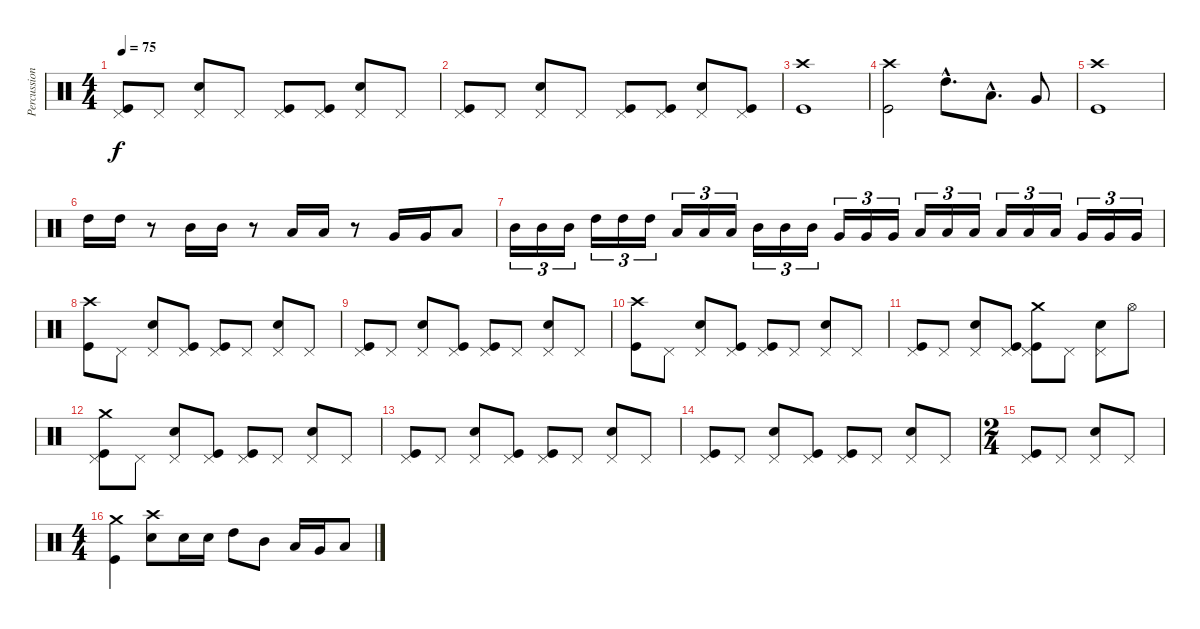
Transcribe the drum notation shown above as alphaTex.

\track ("Percussion" "Percussion") {instrument percussion}
\staff {score}
\articulation defaults
\ts (4 4)
\tempo 75
\clef neutral
\ks c
("Kick (hit)" "Pedal Hi-Hat (hit)").8{dy f} "Pedal Hi-Hat (hit)".8 ("Snare (hit) 2" "Pedal Hi-Hat (hit)").8 "Pedal Hi-Hat (hit)".8 ("Kick (hit)" "Pedal Hi-Hat (hit)").8 ("Kick (hit)" "Pedal Hi-Hat (hit)").8 ("Snare (hit) 2" "Pedal Hi-Hat (hit)").8 "Pedal Hi-Hat (hit)".8 |
("Kick (hit)" "Pedal Hi-Hat (hit)").8 "Pedal Hi-Hat (hit)".8 ("Snare (hit) 2" "Pedal Hi-Hat (hit)").8 "Pedal Hi-Hat (hit)".8 ("Kick (hit)" "Pedal Hi-Hat (hit)").8 ("Kick (hit)" "Pedal Hi-Hat (hit)").8 ("Snare (hit) 2" "Pedal Hi-Hat (hit)").8 ("Kick (hit)" "Pedal Hi-Hat (hit)").8 |
("Kick (hit)" "Crash high (hit)").1 |
("Kick (hit)" "Crash high (hit)").2 "High Tom (hit)"{hac}.8{d} "Low Tom (hit)"{hac}.8{d} "Very Low Tom (hit)".8 |
("Kick (hit)" "Crash high (hit)").1 |
"High Tom (hit)".16 "High Tom (hit)".16 r.8 "Mid Tom (hit)".16 "Mid Tom (hit)".16 r.8 "Low Tom (hit)".16 "Low Tom (hit)".16 r.8 "Very Low Tom (hit)".16 "Very Low Tom (hit)".16 "Low Floor Tom (hit)".8 |
"Mid Tom (hit)".16{tu (3 2)} "Mid Tom (hit)".16{tu (3 2)} "Mid Tom (hit)".16{tu (3 2)} "High Tom (hit)".16{tu (3 2)} "High Tom (hit)".16{tu (3 2)} "High Tom (hit)".16{tu (3 2)} "Low Tom (hit)".16{tu (3 2)} "Low Tom (hit)".16{tu (3 2)} "Low Tom (hit)".16{tu (3 2)} "Mid Tom (hit)".16{tu (3 2)} "Mid Tom (hit)".16{tu (3 2)} "Mid Tom (hit)".16{tu (3 2)} "Very Low Tom (hit)".16{tu (3 2)} "Very Low Tom (hit)".16{tu (3 2)} "Very Low Tom (hit)".16{tu (3 2)} "Low Tom (hit)".16{tu (3 2)} "Low Tom (hit)".16{tu (3 2)} "Low Tom (hit)".16{tu (3 2)} "Low Floor Tom (hit)".16{tu (3 2)} "Low Floor Tom (hit)".16{tu (3 2)} "Low Floor Tom (hit)".16{tu (3 2)} "Very Low Tom (hit)".16{tu (3 2)} "Very Low Tom (hit)".16{tu (3 2)} "Very Low Tom (hit)".16{tu (3 2)} |
("Kick (hit)" "Crash high (hit)").8 "Pedal Hi-Hat (hit)".8 ("Snare (hit) 2" "Pedal Hi-Hat (hit)").8 ("Kick (hit)" "Pedal Hi-Hat (hit)").8 ("Kick (hit)" "Pedal Hi-Hat (hit)").8 "Pedal Hi-Hat (hit)".8 ("Snare (hit) 2" "Pedal Hi-Hat (hit)").8 "Pedal Hi-Hat (hit)".8 |
("Kick (hit)" "Pedal Hi-Hat (hit)").8 "Pedal Hi-Hat (hit)".8 ("Snare (hit) 2" "Pedal Hi-Hat (hit)").8 ("Kick (hit)" "Pedal Hi-Hat (hit)").8 ("Kick (hit)" "Pedal Hi-Hat (hit)").8 "Pedal Hi-Hat (hit)".8 ("Snare (hit) 2" "Pedal Hi-Hat (hit)").8 "Pedal Hi-Hat (hit)".8 |
("Kick (hit)" "Crash high (hit)").8 "Pedal Hi-Hat (hit)".8 ("Snare (hit) 2" "Pedal Hi-Hat (hit)").8 ("Kick (hit)" "Pedal Hi-Hat (hit)").8 ("Kick (hit)" "Pedal Hi-Hat (hit)").8 "Pedal Hi-Hat (hit)".8 ("Snare (hit) 2" "Pedal Hi-Hat (hit)").8 "Pedal Hi-Hat (hit)".8 |
("Kick (hit)" "Pedal Hi-Hat (hit)").8 "Pedal Hi-Hat (hit)".8 ("Snare (hit) 2" "Pedal Hi-Hat (hit)").8 ("Kick (hit)" "Pedal Hi-Hat (hit)").8 ("Kick (hit)" "Pedal Hi-Hat (hit)" "Crash medium (hit)").8 "Pedal Hi-Hat (hit)".8 ("Snare (hit) 2" "Pedal Hi-Hat (hit)").8 "Hi-Hat (open)".8 |
("Kick (hit)" "Pedal Hi-Hat (hit)" "Crash medium (hit)").8 "Pedal Hi-Hat (hit)".8 ("Snare (hit) 2" "Pedal Hi-Hat (hit)").8 ("Kick (hit)" "Pedal Hi-Hat (hit)").8 ("Kick (hit)" "Pedal Hi-Hat (hit)").8 "Pedal Hi-Hat (hit)".8 ("Snare (hit) 2" "Pedal Hi-Hat (hit)").8 "Pedal Hi-Hat (hit)".8 |
("Kick (hit)" "Pedal Hi-Hat (hit)").8 "Pedal Hi-Hat (hit)".8 ("Snare (hit) 2" "Pedal Hi-Hat (hit)").8 ("Kick (hit)" "Pedal Hi-Hat (hit)").8 ("Kick (hit)" "Pedal Hi-Hat (hit)").8 "Pedal Hi-Hat (hit)".8 ("Snare (hit) 2" "Pedal Hi-Hat (hit)").8 "Pedal Hi-Hat (hit)".8 |
("Kick (hit)" "Pedal Hi-Hat (hit)").8 "Pedal Hi-Hat (hit)".8 ("Snare (hit) 2" "Pedal Hi-Hat (hit)").8 ("Kick (hit)" "Pedal Hi-Hat (hit)").8 ("Kick (hit)" "Pedal Hi-Hat (hit)").8 "Pedal Hi-Hat (hit)".8 ("Snare (hit) 2" "Pedal Hi-Hat (hit)").8 "Pedal Hi-Hat (hit)".8 |
\ts (2 4)
("Kick (hit)" "Pedal Hi-Hat (hit)").8 "Pedal Hi-Hat (hit)".8 ("Snare (hit) 2" "Pedal Hi-Hat (hit)").8 "Pedal Hi-Hat (hit)".8 |
\ts (4 4)
("Kick (hit)" "Crash medium (hit)").4 ("Snare (hit) 2" "Crash high (hit)").8 "Snare (hit) 2".16 "Snare (hit) 2".16 "High Tom (hit)".8 "Mid Tom (hit)".8 "Low Tom (hit)".16 "Very Low Tom (hit)".16 "Low Floor Tom (hit)".8
